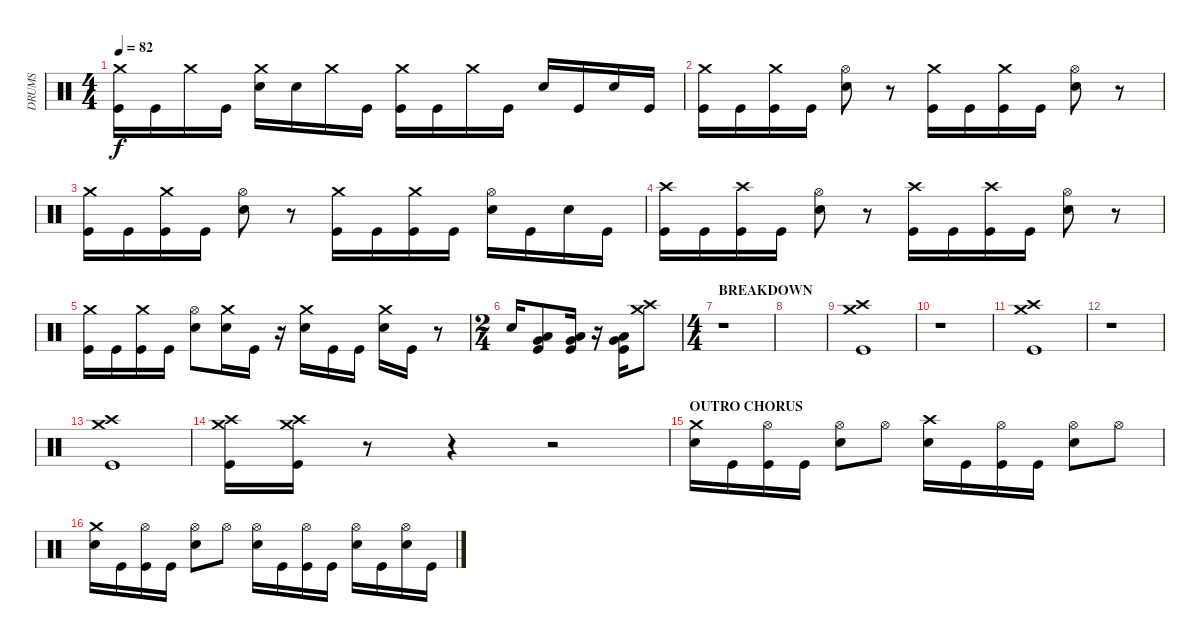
\track ("DRUMS" "DRUMS") {instrument percussion}
\staff {score}
\articulation defaults
\ts (4 4)
\tempo 82
\clef neutral
\ks c
("Crash medium (hit)" "Kick (hit)").16{dy f volume 13} "Kick (hit)".16 "Crash medium (hit)".16 "Kick (hit)".16 ("Crash medium (hit)" "Electric Snare (hit)").16 "Electric Snare (hit)".16 "Crash medium (hit)".16 "Kick (hit)".16 ("Crash medium (hit)" "Kick (hit)").16 "Kick (hit)".16 "Crash medium (hit)".16 "Kick (hit)".16 "Electric Snare (hit)".16 "Kick (hit)".16 "Electric Snare (hit)".16 "Kick (hit)".16 |
("Crash medium (hit)" "Kick (hit)").16 "Kick (hit)".16 ("Crash medium (hit)" "Kick (hit)").16 "Kick (hit)".16 ("Hi-Hat (open)" "Electric Snare (hit)").8 r.8 ("Crash medium (hit)" "Kick (hit)").16 "Kick (hit)".16 ("Crash medium (hit)" "Kick (hit)").16 "Kick (hit)".16 ("Hi-Hat (open)" "Electric Snare (hit)").8 r.8 |
("Crash medium (hit)" "Kick (hit)").16 "Kick (hit)".16 ("Crash medium (hit)" "Kick (hit)").16 "Kick (hit)".16 ("Hi-Hat (open)" "Electric Snare (hit)").8 r.8 ("Crash medium (hit)" "Kick (hit)").16 "Kick (hit)".16 ("Crash medium (hit)" "Kick (hit)").16 "Kick (hit)".16 ("Hi-Hat (open)" "Electric Snare (hit)").16 "Kick (hit)".16 "Electric Snare (hit)".16 "Kick (hit)".16 |
("Crash high (hit)" "Kick (hit)").16 "Kick (hit)".16 ("Crash high (hit)" "Kick (hit)").16 "Kick (hit)".16 ("Hi-Hat (open)" "Electric Snare (hit)").8 r.8 ("Crash high (hit)" "Kick (hit)").16 "Kick (hit)".16 ("Crash high (hit)" "Kick (hit)").16 "Kick (hit)".16 ("Hi-Hat (open)" "Electric Snare (hit)").8 r.8 |
("Crash medium (hit)" "Kick (hit)").16 "Kick (hit)".16 ("Crash medium (hit)" "Kick (hit)").16 "Kick (hit)".16 ("Hi-Hat (open)" "Electric Snare (hit)").8 ("Crash medium (hit)" "Electric Snare (hit)").16 "Kick (hit)".16 r.16 ("Crash medium (hit)" "Electric Snare (hit)").16 "Kick (hit)".16 "Kick (hit)".16 ("Crash medium (hit)" "Electric Snare (hit)").16 "Kick (hit)".16 r.8 |
\ts (2 4)
"Electric Snare (hit)".16 ("Low Floor Tom (hit)" "Very Low Tom (hit)" "Kick (hit)").8 ("Low Tom (hit)" "Very Low Tom (hit)" "Kick (hit)").16 r.16 ("Very Low Tom (hit)" "Low Floor Tom (hit)" "Kick (hit)").16 ("Crash high (hit)" "Crash medium (hit)").8 |
\ts (4 4)
\section ("" "BREAKDOWN")
r.1 |
|
("Crash medium (hit)" "Crash high (hit)" "Kick (hit)").1 |
r.1 |
("Crash medium (hit)" "Crash high (hit)" "Kick (hit)").1 |
r.1 |
("Crash medium (hit)" "Crash high (hit)" "Kick (hit)").1 |
("Crash medium (hit)" "Crash high (hit)" "Kick (hit)").16 ("Crash medium (hit)" "Crash high (hit)" "Kick (hit)").16 r.8 r.4 r.2 |
\section ("" "OUTRO CHORUS")
("Crash medium (hit)" "Electric Snare (hit)").16 "Kick (hit)".16 ("Hi-Hat (open)" "Kick (hit)").16 "Kick (hit)".16 ("Hi-Hat (open)" "Electric Snare (hit)").8 "Hi-Hat (open)".8 ("Crash high (hit)" "Electric Snare (hit)").16 "Kick (hit)".16 ("Hi-Hat (open)" "Kick (hit)").16 "Kick (hit)".16 ("Hi-Hat (open)" "Electric Snare (hit)").8 "Hi-Hat (open)".8 |
("Crash medium (hit)" "Electric Snare (hit)").16 "Kick (hit)".16 ("Hi-Hat (open)" "Kick (hit)").16 "Kick (hit)".16 ("Hi-Hat (open)" "Electric Snare (hit)").8 "Hi-Hat (open)".8 ("Hi-Hat (open)" "Electric Snare (hit)").16 "Kick (hit)".16 ("Hi-Hat (open)" "Kick (hit)").16 "Kick (hit)".16 ("Hi-Hat (open)" "Electric Snare (hit)").16 "Kick (hit)".16 ("Hi-Hat (open)" "Electric Snare (hit)").16 "Kick (hit)".16
